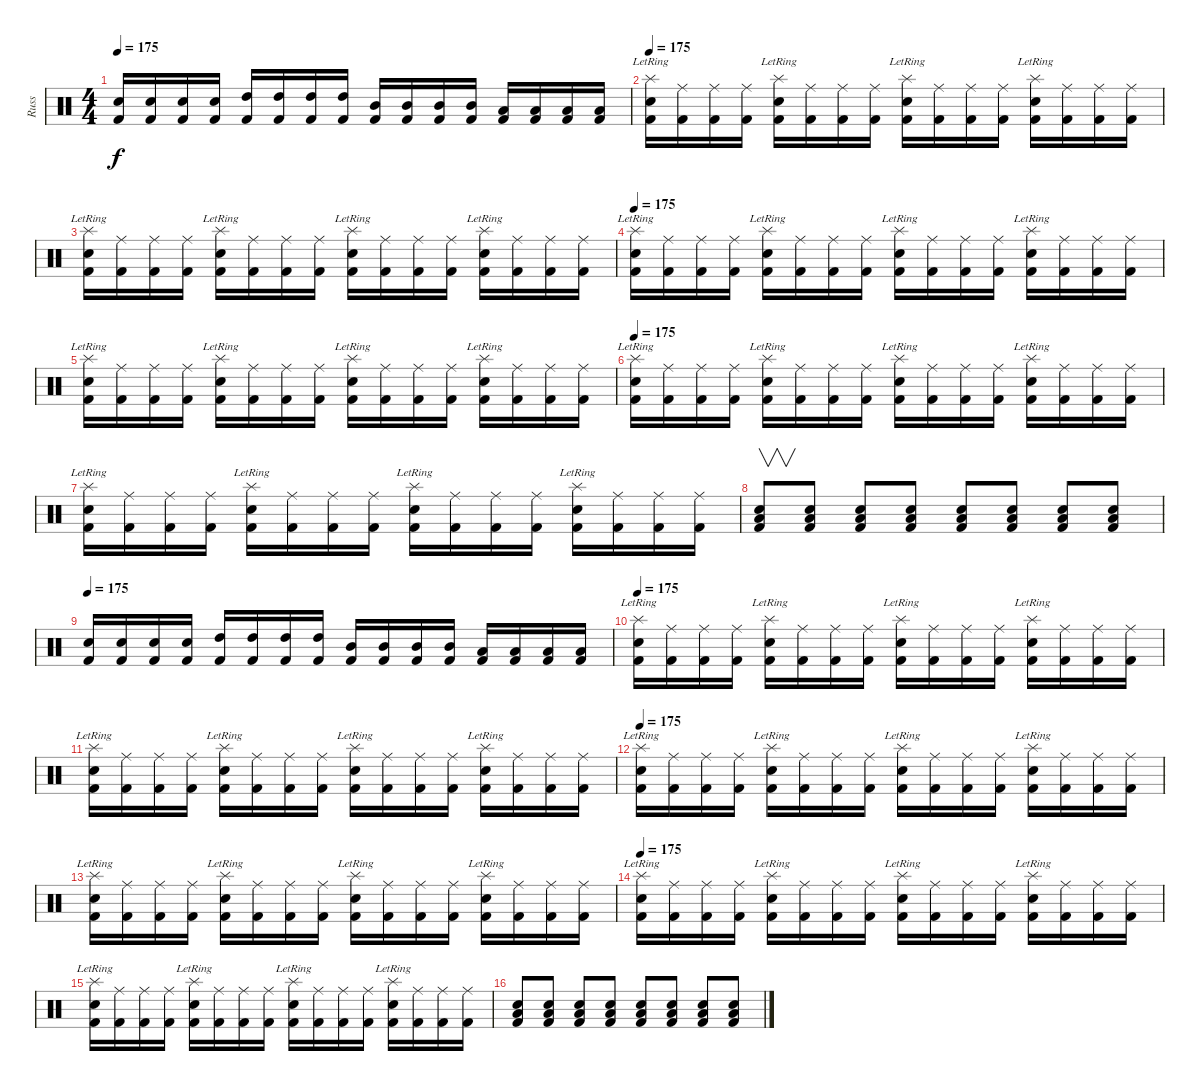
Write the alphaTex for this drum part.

\track ("Russ" "Russ") {instrument percussion}
\staff {score}
\articulation defaults
\ts (4 4)
\tempo 175
\clef neutral
\ks c
("Kick (hit) 2" "Snare (hit) 2").16{dy f} ("Kick (hit) 2" "Snare (hit) 2").16 ("Kick (hit) 2" "Snare (hit) 2").16 ("Kick (hit) 2" "Snare (hit) 2").16 ("Kick (hit) 2" "High Tom (hit)").16 ("Kick (hit) 2" "High Tom (hit)").16 ("Kick (hit) 2" "High Tom (hit)").16 ("Kick (hit) 2" "High Tom (hit)").16 ("Kick (hit) 2" "Mid Tom (hit)").16 ("Kick (hit) 2" "Mid Tom (hit)").16 ("Kick (hit) 2" "Mid Tom (hit)").16 ("Kick (hit) 2" "Mid Tom (hit)").16 ("Kick (hit) 2" "Low Floor Tom (hit)").16 ("Kick (hit) 2" "Low Floor Tom (hit)").16 ("Kick (hit) 2" "Low Floor Tom (hit)").16 ("Kick (hit) 2" "Low Floor Tom (hit)").16 |
\tempo 175
("Kick (hit) 2" "Snare (hit) 2" "Splash (hit)"{lr}).16 ("Kick (hit) 2" "Ride (middle)").16 ("Kick (hit) 2" "Ride (middle)").16 ("Kick (hit) 2" "Ride (middle)").16 ("Kick (hit) 2" "Snare (hit) 2" "Splash (hit)"{lr}).16 ("Kick (hit) 2" "Ride (middle)").16 ("Kick (hit) 2" "Ride (middle)").16 ("Kick (hit) 2" "Ride (middle)").16 ("Kick (hit) 2" "Snare (hit) 2" "Splash (hit)"{lr}).16 ("Kick (hit) 2" "Ride (middle)").16 ("Kick (hit) 2" "Ride (middle)").16 ("Kick (hit) 2" "Ride (middle)").16 ("Kick (hit) 2" "Snare (hit) 2" "Splash (hit)"{lr}).16 ("Kick (hit) 2" "Ride (middle)").16 ("Kick (hit) 2" "Ride (middle)").16 ("Kick (hit) 2" "Ride (middle)").16 |
("Kick (hit) 2" "Snare (hit) 2" "Splash (hit)"{lr}).16 ("Kick (hit) 2" "Ride (middle)").16 ("Kick (hit) 2" "Ride (middle)").16 ("Kick (hit) 2" "Ride (middle)").16 ("Kick (hit) 2" "Snare (hit) 2" "Splash (hit)"{lr}).16 ("Kick (hit) 2" "Ride (middle)").16 ("Kick (hit) 2" "Ride (middle)").16 ("Kick (hit) 2" "Ride (middle)").16 ("Kick (hit) 2" "Snare (hit) 2" "Splash (hit)"{lr}).16 ("Kick (hit) 2" "Ride (middle)").16 ("Kick (hit) 2" "Ride (middle)").16 ("Kick (hit) 2" "Ride (middle)").16 ("Kick (hit) 2" "Snare (hit) 2" "Splash (hit)"{lr}).16 ("Kick (hit) 2" "Ride (middle)").16 ("Kick (hit) 2" "Ride (middle)").16 ("Kick (hit) 2" "Ride (middle)").16 |
\tempo 175
("Kick (hit) 2" "Snare (hit) 2" "Splash (hit)"{lr}).16 ("Kick (hit) 2" "Ride (middle)").16 ("Kick (hit) 2" "Ride (middle)").16 ("Kick (hit) 2" "Ride (middle)").16 ("Kick (hit) 2" "Snare (hit) 2" "Splash (hit)"{lr}).16 ("Kick (hit) 2" "Ride (middle)").16 ("Kick (hit) 2" "Ride (middle)").16 ("Kick (hit) 2" "Ride (middle)").16 ("Kick (hit) 2" "Snare (hit) 2" "Splash (hit)"{lr}).16 ("Kick (hit) 2" "Ride (middle)").16 ("Kick (hit) 2" "Ride (middle)").16 ("Kick (hit) 2" "Ride (middle)").16 ("Kick (hit) 2" "Snare (hit) 2" "Splash (hit)"{lr}).16 ("Kick (hit) 2" "Ride (middle)").16 ("Kick (hit) 2" "Ride (middle)").16 ("Kick (hit) 2" "Ride (middle)").16 |
("Kick (hit) 2" "Snare (hit) 2" "Splash (hit)"{lr}).16 ("Kick (hit) 2" "Ride (middle)").16 ("Kick (hit) 2" "Ride (middle)").16 ("Kick (hit) 2" "Ride (middle)").16 ("Kick (hit) 2" "Snare (hit) 2" "Splash (hit)"{lr}).16 ("Kick (hit) 2" "Ride (middle)").16 ("Kick (hit) 2" "Ride (middle)").16 ("Kick (hit) 2" "Ride (middle)").16 ("Kick (hit) 2" "Snare (hit) 2" "Splash (hit)"{lr}).16 ("Kick (hit) 2" "Ride (middle)").16 ("Kick (hit) 2" "Ride (middle)").16 ("Kick (hit) 2" "Ride (middle)").16 ("Kick (hit) 2" "Snare (hit) 2" "Splash (hit)"{lr}).16 ("Kick (hit) 2" "Ride (middle)").16 ("Kick (hit) 2" "Ride (middle)").16 ("Kick (hit) 2" "Ride (middle)").16 |
\tempo 175
("Kick (hit) 2" "Snare (hit) 2" "Splash (hit)"{lr}).16 ("Kick (hit) 2" "Ride (middle)").16 ("Kick (hit) 2" "Ride (middle)").16 ("Kick (hit) 2" "Ride (middle)").16 ("Kick (hit) 2" "Snare (hit) 2" "Splash (hit)"{lr}).16 ("Kick (hit) 2" "Ride (middle)").16 ("Kick (hit) 2" "Ride (middle)").16 ("Kick (hit) 2" "Ride (middle)").16 ("Kick (hit) 2" "Snare (hit) 2" "Splash (hit)"{lr}).16 ("Kick (hit) 2" "Ride (middle)").16 ("Kick (hit) 2" "Ride (middle)").16 ("Kick (hit) 2" "Ride (middle)").16 ("Kick (hit) 2" "Snare (hit) 2" "Splash (hit)"{lr}).16 ("Kick (hit) 2" "Ride (middle)").16 ("Kick (hit) 2" "Ride (middle)").16 ("Kick (hit) 2" "Ride (middle)").16 |
("Kick (hit) 2" "Snare (hit) 2" "Splash (hit)"{lr}).16 ("Kick (hit) 2" "Ride (middle)").16 ("Kick (hit) 2" "Ride (middle)").16 ("Kick (hit) 2" "Ride (middle)").16 ("Kick (hit) 2" "Snare (hit) 2" "Splash (hit)"{lr}).16 ("Kick (hit) 2" "Ride (middle)").16 ("Kick (hit) 2" "Ride (middle)").16 ("Kick (hit) 2" "Ride (middle)").16 ("Kick (hit) 2" "Snare (hit) 2" "Splash (hit)"{lr}).16 ("Kick (hit) 2" "Ride (middle)").16 ("Kick (hit) 2" "Ride (middle)").16 ("Kick (hit) 2" "Ride (middle)").16 ("Kick (hit) 2" "Snare (hit) 2" "Splash (hit)"{lr}).16 ("Kick (hit) 2" "Ride (middle)").16 ("Kick (hit) 2" "Ride (middle)").16 ("Kick (hit) 2" "Ride (middle)").16 |
("Kick (hit) 2" "Snare (hit) 2" "Low Floor Tom (hit)").8{v} ("Kick (hit) 2" "Snare (hit) 2" "Low Floor Tom (hit)").8 ("Kick (hit) 2" "Snare (hit) 2" "Low Floor Tom (hit)").8 ("Kick (hit) 2" "Snare (hit) 2" "Low Floor Tom (hit)").8 ("Kick (hit) 2" "Snare (hit) 2" "Low Floor Tom (hit)").8 ("Kick (hit) 2" "Snare (hit) 2" "Low Floor Tom (hit)").8 ("Kick (hit) 2" "Snare (hit) 2" "Low Floor Tom (hit)").8 ("Kick (hit) 2" "Snare (hit) 2" "Low Floor Tom (hit)").8 |
\tempo 175
("Kick (hit) 2" "Snare (hit) 2").16 ("Kick (hit) 2" "Snare (hit) 2").16 ("Kick (hit) 2" "Snare (hit) 2").16 ("Kick (hit) 2" "Snare (hit) 2").16 ("Kick (hit) 2" "High Tom (hit)").16 ("Kick (hit) 2" "High Tom (hit)").16 ("Kick (hit) 2" "High Tom (hit)").16 ("Kick (hit) 2" "High Tom (hit)").16 ("Kick (hit) 2" "Mid Tom (hit)").16 ("Kick (hit) 2" "Mid Tom (hit)").16 ("Kick (hit) 2" "Mid Tom (hit)").16 ("Kick (hit) 2" "Mid Tom (hit)").16 ("Kick (hit) 2" "Low Floor Tom (hit)").16 ("Kick (hit) 2" "Low Floor Tom (hit)").16 ("Kick (hit) 2" "Low Floor Tom (hit)").16 ("Kick (hit) 2" "Low Floor Tom (hit)").16 |
\tempo 175
("Kick (hit) 2" "Snare (hit) 2" "Splash (hit)"{lr}).16 ("Kick (hit) 2" "Ride (middle)").16 ("Kick (hit) 2" "Ride (middle)").16 ("Kick (hit) 2" "Ride (middle)").16 ("Kick (hit) 2" "Snare (hit) 2" "Splash (hit)"{lr}).16 ("Kick (hit) 2" "Ride (middle)").16 ("Kick (hit) 2" "Ride (middle)").16 ("Kick (hit) 2" "Ride (middle)").16 ("Kick (hit) 2" "Snare (hit) 2" "Splash (hit)"{lr}).16 ("Kick (hit) 2" "Ride (middle)").16 ("Kick (hit) 2" "Ride (middle)").16 ("Kick (hit) 2" "Ride (middle)").16 ("Kick (hit) 2" "Snare (hit) 2" "Splash (hit)"{lr}).16 ("Kick (hit) 2" "Ride (middle)").16 ("Kick (hit) 2" "Ride (middle)").16 ("Kick (hit) 2" "Ride (middle)").16 |
("Kick (hit) 2" "Snare (hit) 2" "Splash (hit)"{lr}).16 ("Kick (hit) 2" "Ride (middle)").16 ("Kick (hit) 2" "Ride (middle)").16 ("Kick (hit) 2" "Ride (middle)").16 ("Kick (hit) 2" "Snare (hit) 2" "Splash (hit)"{lr}).16 ("Kick (hit) 2" "Ride (middle)").16 ("Kick (hit) 2" "Ride (middle)").16 ("Kick (hit) 2" "Ride (middle)").16 ("Kick (hit) 2" "Snare (hit) 2" "Splash (hit)"{lr}).16 ("Kick (hit) 2" "Ride (middle)").16 ("Kick (hit) 2" "Ride (middle)").16 ("Kick (hit) 2" "Ride (middle)").16 ("Kick (hit) 2" "Snare (hit) 2" "Splash (hit)"{lr}).16 ("Kick (hit) 2" "Ride (middle)").16 ("Kick (hit) 2" "Ride (middle)").16 ("Kick (hit) 2" "Ride (middle)").16 |
\tempo 175
("Kick (hit) 2" "Snare (hit) 2" "Splash (hit)"{lr}).16 ("Kick (hit) 2" "Ride (middle)").16 ("Kick (hit) 2" "Ride (middle)").16 ("Kick (hit) 2" "Ride (middle)").16 ("Kick (hit) 2" "Snare (hit) 2" "Splash (hit)"{lr}).16 ("Kick (hit) 2" "Ride (middle)").16 ("Kick (hit) 2" "Ride (middle)").16 ("Kick (hit) 2" "Ride (middle)").16 ("Kick (hit) 2" "Snare (hit) 2" "Splash (hit)"{lr}).16 ("Kick (hit) 2" "Ride (middle)").16 ("Kick (hit) 2" "Ride (middle)").16 ("Kick (hit) 2" "Ride (middle)").16 ("Kick (hit) 2" "Snare (hit) 2" "Splash (hit)"{lr}).16 ("Kick (hit) 2" "Ride (middle)").16 ("Kick (hit) 2" "Ride (middle)").16 ("Kick (hit) 2" "Ride (middle)").16 |
("Kick (hit) 2" "Snare (hit) 2" "Splash (hit)"{lr}).16 ("Kick (hit) 2" "Ride (middle)").16 ("Kick (hit) 2" "Ride (middle)").16 ("Kick (hit) 2" "Ride (middle)").16 ("Kick (hit) 2" "Snare (hit) 2" "Splash (hit)"{lr}).16 ("Kick (hit) 2" "Ride (middle)").16 ("Kick (hit) 2" "Ride (middle)").16 ("Kick (hit) 2" "Ride (middle)").16 ("Kick (hit) 2" "Snare (hit) 2" "Splash (hit)"{lr}).16 ("Kick (hit) 2" "Ride (middle)").16 ("Kick (hit) 2" "Ride (middle)").16 ("Kick (hit) 2" "Ride (middle)").16 ("Kick (hit) 2" "Snare (hit) 2" "Splash (hit)"{lr}).16 ("Kick (hit) 2" "Ride (middle)").16 ("Kick (hit) 2" "Ride (middle)").16 ("Kick (hit) 2" "Ride (middle)").16 |
\tempo 175
("Kick (hit) 2" "Snare (hit) 2" "Splash (hit)"{lr}).16 ("Kick (hit) 2" "Ride (middle)").16 ("Kick (hit) 2" "Ride (middle)").16 ("Kick (hit) 2" "Ride (middle)").16 ("Kick (hit) 2" "Snare (hit) 2" "Splash (hit)"{lr}).16 ("Kick (hit) 2" "Ride (middle)").16 ("Kick (hit) 2" "Ride (middle)").16 ("Kick (hit) 2" "Ride (middle)").16 ("Kick (hit) 2" "Snare (hit) 2" "Splash (hit)"{lr}).16 ("Kick (hit) 2" "Ride (middle)").16 ("Kick (hit) 2" "Ride (middle)").16 ("Kick (hit) 2" "Ride (middle)").16 ("Kick (hit) 2" "Snare (hit) 2" "Splash (hit)"{lr}).16 ("Kick (hit) 2" "Ride (middle)").16 ("Kick (hit) 2" "Ride (middle)").16 ("Kick (hit) 2" "Ride (middle)").16 |
("Kick (hit) 2" "Snare (hit) 2" "Splash (hit)"{lr}).16 ("Kick (hit) 2" "Ride (middle)").16 ("Kick (hit) 2" "Ride (middle)").16 ("Kick (hit) 2" "Ride (middle)").16 ("Kick (hit) 2" "Snare (hit) 2" "Splash (hit)"{lr}).16 ("Kick (hit) 2" "Ride (middle)").16 ("Kick (hit) 2" "Ride (middle)").16 ("Kick (hit) 2" "Ride (middle)").16 ("Kick (hit) 2" "Snare (hit) 2" "Splash (hit)"{lr}).16 ("Kick (hit) 2" "Ride (middle)").16 ("Kick (hit) 2" "Ride (middle)").16 ("Kick (hit) 2" "Ride (middle)").16 ("Kick (hit) 2" "Snare (hit) 2" "Splash (hit)"{lr}).16 ("Kick (hit) 2" "Ride (middle)").16 ("Kick (hit) 2" "Ride (middle)").16 ("Kick (hit) 2" "Ride (middle)").16 |
("Kick (hit) 2" "Snare (hit) 2" "Low Floor Tom (hit)").8 ("Kick (hit) 2" "Snare (hit) 2" "Low Floor Tom (hit)").8 ("Kick (hit) 2" "Snare (hit) 2" "Low Floor Tom (hit)").8 ("Kick (hit) 2" "Snare (hit) 2" "Low Floor Tom (hit)").8 ("Kick (hit) 2" "Snare (hit) 2" "Low Floor Tom (hit)").8 ("Kick (hit) 2" "Snare (hit) 2" "Low Floor Tom (hit)").8 ("Kick (hit) 2" "Snare (hit) 2" "Low Floor Tom (hit)").8 ("Kick (hit) 2" "Snare (hit) 2" "Low Floor Tom (hit)").8
